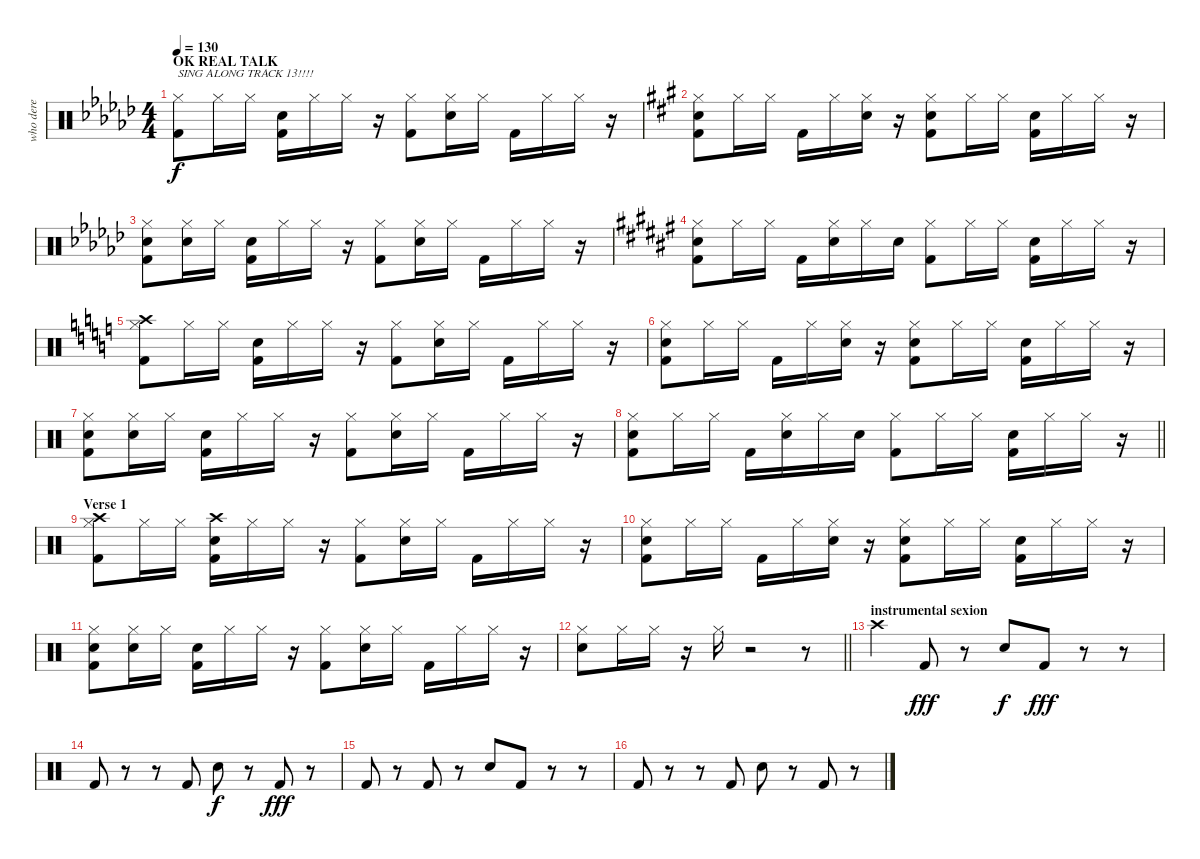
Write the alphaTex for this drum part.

\track ("who dere" "who dere") {instrument percussion}
\staff {score}
\articulation defaults
\ts (4 4)
\section ("" "OK REAL TALK")
\tempo 130
\clef neutral
\ks gb
("Hi-Hat (closed)" "Kick (hit) 2").8{txt "SING ALONG TRACK 13!!!!" dy f} "Hi-Hat (closed)".16 "Hi-Hat (closed)".16 ("Electric Snare (hit)" "Kick (hit) 2").16 "Hi-Hat (closed)".16 "Hi-Hat (closed)".16 r.16 ("Hi-Hat (closed)" "Kick (hit) 2").8 ("Hi-Hat (closed)" "Electric Snare (hit)").16 "Hi-Hat (closed)".16 "Kick (hit) 2".16 "Hi-Hat (closed)".16 "Hi-Hat (closed)".16 r.16 |
\ks a
("Hi-Hat (closed)" "Electric Snare (hit)" "Kick (hit) 2").8 "Hi-Hat (closed)".16 "Hi-Hat (closed)".16 "Kick (hit) 2".16 "Hi-Hat (closed)".16 ("Hi-Hat (closed)" "Electric Snare (hit)").16 r.16 ("Hi-Hat (closed)" "Electric Snare (hit)" "Kick (hit) 2").8 "Hi-Hat (closed)".16 "Hi-Hat (closed)".16 ("Electric Snare (hit)" "Kick (hit) 2").16 "Hi-Hat (closed)".16 "Hi-Hat (closed)".16 r.16 |
\ks gb
("Hi-Hat (closed)" "Electric Snare (hit)" "Kick (hit) 2").8 ("Hi-Hat (closed)" "Electric Snare (hit)").16 "Hi-Hat (closed)".16 ("Electric Snare (hit)" "Kick (hit) 2").16 "Hi-Hat (closed)".16 "Hi-Hat (closed)".16 r.16 ("Hi-Hat (closed)" "Kick (hit) 2").8 ("Hi-Hat (closed)" "Electric Snare (hit)").16 "Hi-Hat (closed)".16 "Kick (hit) 2".16 "Hi-Hat (closed)".16 "Hi-Hat (closed)".16 r.16 |
\ks f#
("Hi-Hat (closed)" "Electric Snare (hit)" "Kick (hit) 2").8 "Hi-Hat (closed)".16 "Hi-Hat (closed)".16 "Kick (hit) 2".16 ("Hi-Hat (closed)" "Electric Snare (hit)").16 "Hi-Hat (closed)".16 "Electric Snare (hit)".16 ("Hi-Hat (closed)" "Kick (hit) 2").8 "Hi-Hat (closed)".16 "Hi-Hat (closed)".16 ("Electric Snare (hit)" "Kick (hit) 2").16 "Hi-Hat (closed)".16 "Hi-Hat (closed)".16 r.16 |
\ks c
("Hi-Hat (closed)" "Crash high (hit)" "Kick (hit) 2").8 "Hi-Hat (closed)".16 "Hi-Hat (closed)".16 ("Electric Snare (hit)" "Kick (hit) 2").16 "Hi-Hat (closed)".16 "Hi-Hat (closed)".16 r.16 ("Hi-Hat (closed)" "Kick (hit) 2").8 ("Hi-Hat (closed)" "Electric Snare (hit)").16 "Hi-Hat (closed)".16 "Kick (hit) 2".16 "Hi-Hat (closed)".16 "Hi-Hat (closed)".16 r.16 |
("Hi-Hat (closed)" "Electric Snare (hit)" "Kick (hit) 2").8 "Hi-Hat (closed)".16 "Hi-Hat (closed)".16 "Kick (hit) 2".16 "Hi-Hat (closed)".16 ("Hi-Hat (closed)" "Electric Snare (hit)").16 r.16 ("Hi-Hat (closed)" "Electric Snare (hit)" "Kick (hit) 2").8 "Hi-Hat (closed)".16 "Hi-Hat (closed)".16 ("Electric Snare (hit)" "Kick (hit) 2").16 "Hi-Hat (closed)".16 "Hi-Hat (closed)".16 r.16 |
("Hi-Hat (closed)" "Electric Snare (hit)" "Kick (hit) 2").8 ("Hi-Hat (closed)" "Electric Snare (hit)").16 "Hi-Hat (closed)".16 ("Electric Snare (hit)" "Kick (hit) 2").16 "Hi-Hat (closed)".16 "Hi-Hat (closed)".16 r.16 ("Hi-Hat (closed)" "Kick (hit) 2").8 ("Hi-Hat (closed)" "Electric Snare (hit)").16 "Hi-Hat (closed)".16 "Kick (hit) 2".16 "Hi-Hat (closed)".16 "Hi-Hat (closed)".16 r.16 |
\barLineRight lightlight
("Hi-Hat (closed)" "Electric Snare (hit)" "Kick (hit) 2").8 "Hi-Hat (closed)".16 "Hi-Hat (closed)".16 "Kick (hit) 2".16 ("Hi-Hat (closed)" "Electric Snare (hit)").16 "Hi-Hat (closed)".16 "Electric Snare (hit)".16 ("Hi-Hat (closed)" "Kick (hit) 2").8 "Hi-Hat (closed)".16 "Hi-Hat (closed)".16 ("Electric Snare (hit)" "Kick (hit) 2").16 "Hi-Hat (closed)".16 "Hi-Hat (closed)".16 r.16 |
\section ("" "Verse 1")
("Hi-Hat (closed)" "Crash high (hit)" "Kick (hit) 2").8 "Hi-Hat (closed)".16 "Hi-Hat (closed)".16 ("Crash high (hit)" "Electric Snare (hit)" "Kick (hit) 2").16 "Hi-Hat (closed)".16 "Hi-Hat (closed)".16 r.16 ("Hi-Hat (closed)" "Kick (hit) 2").8 ("Hi-Hat (closed)" "Electric Snare (hit)").16 "Hi-Hat (closed)".16 "Kick (hit) 2".16 "Hi-Hat (closed)".16 "Hi-Hat (closed)".16 r.16 |
("Hi-Hat (closed)" "Electric Snare (hit)" "Kick (hit) 2").8 "Hi-Hat (closed)".16 "Hi-Hat (closed)".16 "Kick (hit) 2".16 "Hi-Hat (closed)".16 ("Hi-Hat (closed)" "Electric Snare (hit)").16 r.16 ("Hi-Hat (closed)" "Electric Snare (hit)" "Kick (hit) 2").8 "Hi-Hat (closed)".16 "Hi-Hat (closed)".16 ("Electric Snare (hit)" "Kick (hit) 2").16 "Hi-Hat (closed)".16 "Hi-Hat (closed)".16 r.16 |
("Hi-Hat (closed)" "Electric Snare (hit)" "Kick (hit) 2").8 ("Hi-Hat (closed)" "Electric Snare (hit)").16 "Hi-Hat (closed)".16 ("Electric Snare (hit)" "Kick (hit) 2").16 "Hi-Hat (closed)".16 "Hi-Hat (closed)".16 r.16 ("Hi-Hat (closed)" "Kick (hit) 2").8 ("Hi-Hat (closed)" "Electric Snare (hit)").16 "Hi-Hat (closed)".16 "Kick (hit) 2".16 "Hi-Hat (closed)".16 "Hi-Hat (closed)".16 r.16 |
\barLineRight lightlight
("Hi-Hat (closed)" "Electric Snare (hit)").8 "Hi-Hat (closed)".16 "Hi-Hat (closed)".16 r.16 "Hi-Hat (closed)".16 r.2 r.8 |
\section ("" "instrumental sexion")
"Crash high (hit)".4 "Kick (hit) 2".8{dy fff} r.8 "Electric Snare (hit)".8{dy f} "Kick (hit) 2".8{dy fff} r.8 r.8 |
"Kick (hit) 2".8 r.8 r.8 "Kick (hit) 2".8 "Electric Snare (hit)".8{dy f} r.8 "Kick (hit) 2".8{dy fff} r.8 |
"Kick (hit) 2".8 r.8 "Kick (hit) 2".8 r.8 "Electric Snare (hit)".8 "Kick (hit) 2".8 r.8 r.8 |
"Kick (hit) 2".8 r.8 r.8 "Kick (hit) 2".8 "Electric Snare (hit)".8 r.8 "Kick (hit) 2".8 r.8
